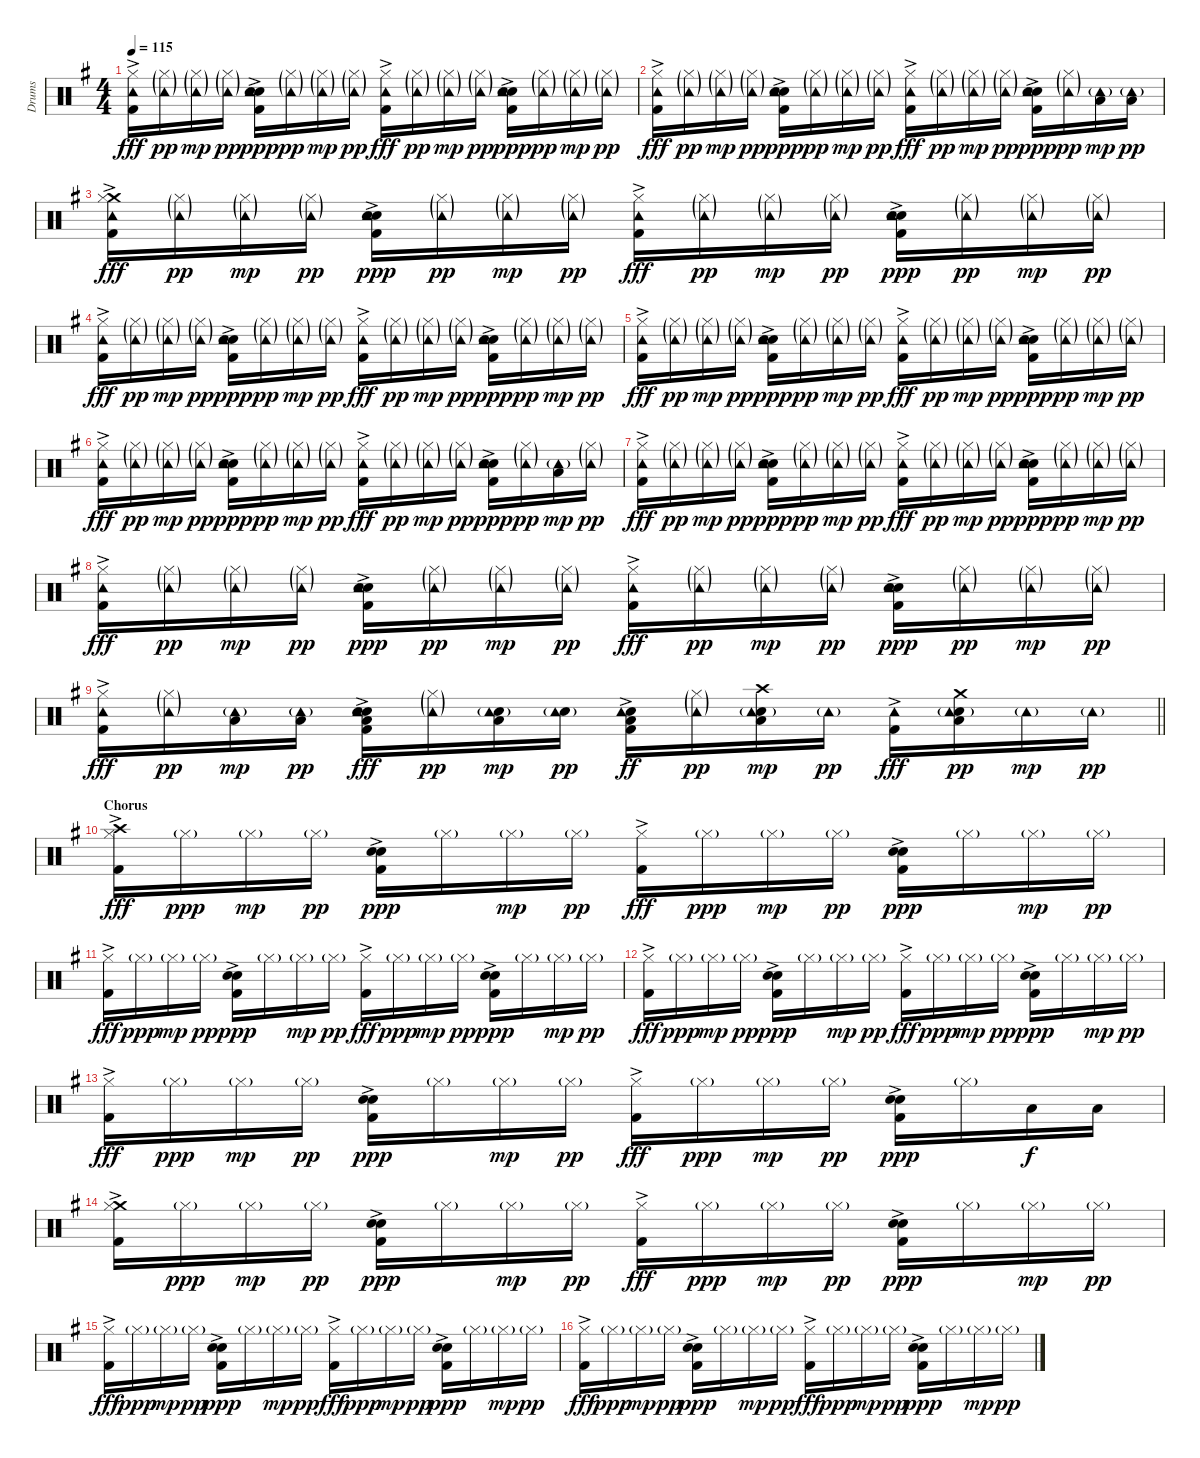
\track ("Drums" "Drums") {instrument percussion}
\staff {score}
\articulation defaults
\ts (4 4)
\tempo 115
\clef neutral
\ks g
("Kick (hit) 2"{ac} "Hi-Hat (closed)" "Tambourine (hit)").16{dy fff} ("Hi-Hat (closed)"{g} "Tambourine (hit)"{g}).16{dy pp} ("Hi-Hat (closed)"{g} "Tambourine (hit)"{g}).16{dy mp} ("Hi-Hat (closed)"{g} "Tambourine (hit)"{g}).16{dy pp} ("Kick (hit) 2"{ac} "Snare (hit) 2"{ac} "Electric Snare (hit)" "Tambourine (hit)").16{dy ppp} ("Hi-Hat (closed)"{g} "Tambourine (hit)"{g}).16{dy pp} ("Hi-Hat (closed)"{g} "Tambourine (hit)"{g}).16{dy mp} ("Hi-Hat (closed)"{g} "Tambourine (hit)"{g}).16{dy pp} ("Kick (hit) 2"{ac} "Hi-Hat (closed)" "Tambourine (hit)").16{dy fff} ("Hi-Hat (closed)"{g} "Tambourine (hit)"{g}).16{dy pp} ("Hi-Hat (closed)"{g} "Tambourine (hit)"{g}).16{dy mp} ("Hi-Hat (closed)"{g} "Tambourine (hit)"{g}).16{dy pp} ("Kick (hit) 2"{ac} "Snare (hit) 2"{ac} "Electric Snare (hit)" "Tambourine (hit)").16{dy ppp} ("Hi-Hat (closed)"{g} "Tambourine (hit)"{g}).16{dy pp} ("Hi-Hat (closed)"{g} "Tambourine (hit)"{g}).16{dy mp} ("Hi-Hat (closed)"{g} "Tambourine (hit)"{g}).16{dy pp} |
("Kick (hit) 2"{ac} "Hi-Hat (closed)" "Tambourine (hit)").16{dy fff} ("Hi-Hat (closed)"{g} "Tambourine (hit)"{g}).16{dy pp} ("Hi-Hat (closed)"{g} "Tambourine (hit)"{g}).16{dy mp} ("Hi-Hat (closed)"{g} "Tambourine (hit)"{g}).16{dy pp} ("Kick (hit) 2"{ac} "Snare (hit) 2"{ac} "Electric Snare (hit)" "Tambourine (hit)").16{dy ppp} ("Hi-Hat (closed)"{g} "Tambourine (hit)"{g}).16{dy pp} ("Hi-Hat (closed)"{g} "Tambourine (hit)"{g}).16{dy mp} ("Hi-Hat (closed)"{g} "Tambourine (hit)"{g}).16{dy pp} ("Kick (hit) 2"{ac} "Hi-Hat (closed)" "Tambourine (hit)").16{dy fff} ("Hi-Hat (closed)"{g} "Tambourine (hit)"{g}).16{dy pp} ("Hi-Hat (closed)"{g} "Tambourine (hit)"{g}).16{dy mp} ("Hi-Hat (closed)"{g} "Tambourine (hit)"{g}).16{dy pp} ("Kick (hit) 2"{ac} "Snare (hit) 2"{ac} "Electric Snare (hit)" "Tambourine (hit)").16{dy ppp} ("Hi-Hat (closed)"{g} "Tambourine (hit)"{g}).16{dy pp} ("Low Tom (hit)" "Tambourine (hit)"{g}).16{dy mp} ("Low Tom (hit)" "Tambourine (hit)"{g}).16{dy pp} |
("Kick (hit) 2"{ac} "Crash medium (hit)" "Hi-Hat (closed)" "Tambourine (hit)").16{dy fff} ("Hi-Hat (closed)"{g} "Tambourine (hit)"{g}).16{dy pp} ("Hi-Hat (closed)"{g} "Tambourine (hit)"{g}).16{dy mp} ("Hi-Hat (closed)"{g} "Tambourine (hit)"{g}).16{dy pp} ("Kick (hit) 2"{ac} "Snare (hit) 2"{ac} "Electric Snare (hit)" "Tambourine (hit)").16{dy ppp} ("Hi-Hat (closed)"{g} "Tambourine (hit)"{g}).16{dy pp} ("Hi-Hat (closed)"{g} "Tambourine (hit)"{g}).16{dy mp} ("Hi-Hat (closed)"{g} "Tambourine (hit)"{g}).16{dy pp} ("Kick (hit) 2"{ac} "Hi-Hat (closed)" "Tambourine (hit)").16{dy fff} ("Hi-Hat (closed)"{g} "Tambourine (hit)"{g}).16{dy pp} ("Hi-Hat (closed)"{g} "Tambourine (hit)"{g}).16{dy mp} ("Hi-Hat (closed)"{g} "Tambourine (hit)"{g}).16{dy pp} ("Kick (hit) 2"{ac} "Snare (hit) 2"{ac} "Electric Snare (hit)" "Tambourine (hit)").16{dy ppp} ("Hi-Hat (closed)"{g} "Tambourine (hit)"{g}).16{dy pp} ("Hi-Hat (closed)"{g} "Tambourine (hit)"{g}).16{dy mp} ("Hi-Hat (closed)"{g} "Tambourine (hit)"{g}).16{dy pp} |
("Kick (hit) 2"{ac} "Hi-Hat (closed)" "Tambourine (hit)").16{dy fff} ("Hi-Hat (closed)"{g} "Tambourine (hit)"{g}).16{dy pp} ("Hi-Hat (closed)"{g} "Tambourine (hit)"{g}).16{dy mp} ("Hi-Hat (closed)"{g} "Tambourine (hit)"{g}).16{dy pp} ("Kick (hit) 2"{ac} "Snare (hit) 2"{ac} "Electric Snare (hit)" "Tambourine (hit)").16{dy ppp} ("Hi-Hat (closed)"{g} "Tambourine (hit)"{g}).16{dy pp} ("Hi-Hat (closed)"{g} "Tambourine (hit)"{g}).16{dy mp} ("Hi-Hat (closed)"{g} "Tambourine (hit)"{g}).16{dy pp} ("Kick (hit) 2"{ac} "Hi-Hat (closed)" "Tambourine (hit)").16{dy fff} ("Hi-Hat (closed)"{g} "Tambourine (hit)"{g}).16{dy pp} ("Hi-Hat (closed)"{g} "Tambourine (hit)"{g}).16{dy mp} ("Hi-Hat (closed)"{g} "Tambourine (hit)"{g}).16{dy pp} ("Kick (hit) 2"{ac} "Snare (hit) 2"{ac} "Electric Snare (hit)" "Tambourine (hit)").16{dy ppp} ("Hi-Hat (closed)"{g} "Tambourine (hit)"{g}).16{dy pp} ("Hi-Hat (closed)"{g} "Tambourine (hit)"{g}).16{dy mp} ("Hi-Hat (closed)"{g} "Tambourine (hit)"{g}).16{dy pp} |
("Kick (hit) 2"{ac} "Hi-Hat (closed)" "Tambourine (hit)").16{dy fff} ("Hi-Hat (closed)"{g} "Tambourine (hit)"{g}).16{dy pp} ("Hi-Hat (closed)"{g} "Tambourine (hit)"{g}).16{dy mp} ("Hi-Hat (closed)"{g} "Tambourine (hit)"{g}).16{dy pp} ("Kick (hit) 2"{ac} "Snare (hit) 2"{ac} "Electric Snare (hit)" "Tambourine (hit)").16{dy ppp} ("Hi-Hat (closed)"{g} "Tambourine (hit)"{g}).16{dy pp} ("Hi-Hat (closed)"{g} "Tambourine (hit)"{g}).16{dy mp} ("Hi-Hat (closed)"{g} "Tambourine (hit)"{g}).16{dy pp} ("Kick (hit) 2"{ac} "Hi-Hat (closed)" "Tambourine (hit)").16{dy fff} ("Hi-Hat (closed)"{g} "Tambourine (hit)"{g}).16{dy pp} ("Hi-Hat (closed)"{g} "Tambourine (hit)"{g}).16{dy mp} ("Hi-Hat (closed)"{g} "Tambourine (hit)"{g}).16{dy pp} ("Kick (hit) 2"{ac} "Snare (hit) 2"{ac} "Electric Snare (hit)" "Tambourine (hit)").16{dy ppp} ("Hi-Hat (closed)"{g} "Tambourine (hit)"{g}).16{dy pp} ("Hi-Hat (closed)"{g} "Tambourine (hit)"{g}).16{dy mp} ("Hi-Hat (closed)"{g} "Tambourine (hit)"{g}).16{dy pp} |
("Kick (hit) 2"{ac} "Hi-Hat (closed)" "Tambourine (hit)").16{dy fff} ("Hi-Hat (closed)"{g} "Tambourine (hit)"{g}).16{dy pp} ("Hi-Hat (closed)"{g} "Tambourine (hit)"{g}).16{dy mp} ("Hi-Hat (closed)"{g} "Tambourine (hit)"{g}).16{dy pp} ("Kick (hit) 2"{ac} "Snare (hit) 2"{ac} "Electric Snare (hit)" "Tambourine (hit)").16{dy ppp} ("Hi-Hat (closed)"{g} "Tambourine (hit)"{g}).16{dy pp} ("Hi-Hat (closed)"{g} "Tambourine (hit)"{g}).16{dy mp} ("Hi-Hat (closed)"{g} "Tambourine (hit)"{g}).16{dy pp} ("Kick (hit) 2"{ac} "Hi-Hat (closed)" "Tambourine (hit)").16{dy fff} ("Hi-Hat (closed)"{g} "Tambourine (hit)"{g}).16{dy pp} ("Hi-Hat (closed)"{g} "Tambourine (hit)"{g}).16{dy mp} ("Hi-Hat (closed)"{g} "Tambourine (hit)"{g}).16{dy pp} ("Kick (hit) 2"{ac} "Snare (hit) 2"{ac} "Electric Snare (hit)" "Tambourine (hit)").16{dy ppp} ("Hi-Hat (closed)"{g} "Tambourine (hit)"{g}).16{dy pp} ("Low Floor Tom (hit)" "Tambourine (hit)"{g}).16{dy mp} ("Hi-Hat (closed)"{g} "Tambourine (hit)"{g}).16{dy pp} |
("Kick (hit) 2"{ac} "Hi-Hat (closed)" "Tambourine (hit)").16{dy fff} ("Hi-Hat (closed)"{g} "Tambourine (hit)"{g}).16{dy pp} ("Hi-Hat (closed)"{g} "Tambourine (hit)"{g}).16{dy mp} ("Hi-Hat (closed)"{g} "Tambourine (hit)"{g}).16{dy pp} ("Kick (hit) 2"{ac} "Snare (hit) 2"{ac} "Electric Snare (hit)" "Tambourine (hit)").16{dy ppp} ("Hi-Hat (closed)"{g} "Tambourine (hit)"{g}).16{dy pp} ("Hi-Hat (closed)"{g} "Tambourine (hit)"{g}).16{dy mp} ("Hi-Hat (closed)"{g} "Tambourine (hit)"{g}).16{dy pp} ("Kick (hit) 2"{ac} "Hi-Hat (closed)" "Tambourine (hit)").16{dy fff} ("Hi-Hat (closed)"{g} "Tambourine (hit)"{g}).16{dy pp} ("Hi-Hat (closed)"{g} "Tambourine (hit)"{g}).16{dy mp} ("Hi-Hat (closed)"{g} "Tambourine (hit)"{g}).16{dy pp} ("Kick (hit) 2"{ac} "Snare (hit) 2"{ac} "Electric Snare (hit)" "Tambourine (hit)").16{dy ppp} ("Hi-Hat (closed)"{g} "Tambourine (hit)"{g}).16{dy pp} ("Hi-Hat (closed)"{g} "Tambourine (hit)"{g}).16{dy mp} ("Hi-Hat (closed)"{g} "Tambourine (hit)"{g}).16{dy pp} |
("Kick (hit) 2"{ac} "Hi-Hat (closed)" "Tambourine (hit)").16{dy fff} ("Hi-Hat (closed)"{g} "Tambourine (hit)"{g}).16{dy pp} ("Hi-Hat (closed)"{g} "Tambourine (hit)"{g}).16{dy mp} ("Hi-Hat (closed)"{g} "Tambourine (hit)"{g}).16{dy pp} ("Kick (hit) 2"{ac} "Snare (hit) 2"{ac} "Electric Snare (hit)" "Tambourine (hit)").16{dy ppp} ("Hi-Hat (closed)"{g} "Tambourine (hit)"{g}).16{dy pp} ("Hi-Hat (closed)"{g} "Tambourine (hit)"{g}).16{dy mp} ("Hi-Hat (closed)"{g} "Tambourine (hit)"{g}).16{dy pp} ("Kick (hit) 2"{ac} "Hi-Hat (closed)" "Tambourine (hit)").16{dy fff} ("Hi-Hat (closed)"{g} "Tambourine (hit)"{g}).16{dy pp} ("Hi-Hat (closed)"{g} "Tambourine (hit)"{g}).16{dy mp} ("Hi-Hat (closed)"{g} "Tambourine (hit)"{g}).16{dy pp} ("Kick (hit) 2"{ac} "Snare (hit) 2"{ac} "Electric Snare (hit)" "Tambourine (hit)").16{dy ppp} ("Hi-Hat (closed)"{g} "Tambourine (hit)"{g}).16{dy pp} ("Hi-Hat (closed)"{g} "Tambourine (hit)"{g}).16{dy mp} ("Hi-Hat (closed)"{g} "Tambourine (hit)"{g}).16{dy pp} |
\barLineRight lightlight
("Kick (hit) 2"{ac} "Hi-Hat (closed)" "Tambourine (hit)").16{dy fff} ("Hi-Hat (closed)"{g} "Tambourine (hit)"{g}).16{dy pp} ("Low Tom (hit)" "Tambourine (hit)"{g}).16{dy mp} ("Low Tom (hit)" "Tambourine (hit)"{g}).16{dy pp} ("Kick (hit) 2"{ac} "Snare (hit) 2"{ac} "Electric Snare (hit)" "Low Tom (hit)" "Tambourine (hit)").16{dy fff} ("Hi-Hat (closed)"{g} "Tambourine (hit)"{g}).16{dy pp} ("Snare (hit) 2" "Low Tom (hit)" "Tambourine (hit)"{g}).16{dy mp} ("Snare (hit) 2" "Tambourine (hit)"{g}).16{dy pp} ("Kick (hit) 2"{ac} "Snare (hit) 2" "Low Floor Tom (hit)" "Tambourine (hit)").16{dy ff} ("Hi-Hat (closed)"{g} "Tambourine (hit)"{g}).16{dy pp} ("Snare (hit) 2" "Crash high (hit)" "Low Tom (hit)" "Tambourine (hit)"{g}).16{dy mp} "Tambourine (hit)"{g}.16{dy pp} ("Kick (hit) 2"{ac} "Tambourine (hit)").16{dy fff} ("Snare (hit) 2" "Crash medium (hit)" "Low Tom (hit)" "Tambourine (hit)"{g}).16{dy pp} "Tambourine (hit)"{g}.16{dy mp} "Tambourine (hit)"{g}.16{dy pp} |
\section ("" "Chorus")
("Kick (hit) 2"{ac} "Crash high (hit)" "Hi-Hat (closed)").16{dy fff} "Hi-Hat (closed)"{g}.16{dy ppp} "Hi-Hat (closed)"{g}.16{dy mp} "Hi-Hat (closed)"{g}.16{dy pp} ("Kick (hit) 2"{ac} "Snare (hit) 2"{ac} "Electric Snare (hit)").16{dy ppp} "Hi-Hat (closed)"{g}.16 "Hi-Hat (closed)"{g}.16{dy mp} "Hi-Hat (closed)"{g}.16{dy pp} ("Kick (hit) 2"{ac} "Hi-Hat (closed)").16{dy fff} "Hi-Hat (closed)"{g}.16{dy ppp} "Hi-Hat (closed)"{g}.16{dy mp} "Hi-Hat (closed)"{g}.16{dy pp} ("Kick (hit) 2"{ac} "Snare (hit) 2"{ac} "Electric Snare (hit)").16{dy ppp} "Hi-Hat (closed)"{g}.16 "Hi-Hat (closed)"{g}.16{dy mp} "Hi-Hat (closed)"{g}.16{dy pp} |
("Kick (hit) 2"{ac} "Hi-Hat (closed)").16{dy fff} "Hi-Hat (closed)"{g}.16{dy ppp} "Hi-Hat (closed)"{g}.16{dy mp} "Hi-Hat (closed)"{g}.16{dy pp} ("Kick (hit) 2"{ac} "Snare (hit) 2"{ac} "Electric Snare (hit)").16{dy ppp} "Hi-Hat (closed)"{g}.16 "Hi-Hat (closed)"{g}.16{dy mp} "Hi-Hat (closed)"{g}.16{dy pp} ("Kick (hit) 2"{ac} "Hi-Hat (closed)").16{dy fff} "Hi-Hat (closed)"{g}.16{dy ppp} "Hi-Hat (closed)"{g}.16{dy mp} "Hi-Hat (closed)"{g}.16{dy pp} ("Kick (hit) 2"{ac} "Snare (hit) 2"{ac} "Electric Snare (hit)").16{dy ppp} "Hi-Hat (closed)"{g}.16 "Hi-Hat (closed)"{g}.16{dy mp} "Hi-Hat (closed)"{g}.16{dy pp} |
("Kick (hit) 2"{ac} "Hi-Hat (closed)").16{dy fff} "Hi-Hat (closed)"{g}.16{dy ppp} "Hi-Hat (closed)"{g}.16{dy mp} "Hi-Hat (closed)"{g}.16{dy pp} ("Kick (hit) 2"{ac} "Snare (hit) 2"{ac} "Electric Snare (hit)").16{dy ppp} "Hi-Hat (closed)"{g}.16 "Hi-Hat (closed)"{g}.16{dy mp} "Hi-Hat (closed)"{g}.16{dy pp} ("Kick (hit) 2"{ac} "Hi-Hat (closed)").16{dy fff} "Hi-Hat (closed)"{g}.16{dy ppp} "Hi-Hat (closed)"{g}.16{dy mp} "Hi-Hat (closed)"{g}.16{dy pp} ("Kick (hit) 2"{ac} "Snare (hit) 2"{ac} "Electric Snare (hit)").16{dy ppp} "Hi-Hat (closed)"{g}.16 "Hi-Hat (closed)"{g}.16{dy mp} "Hi-Hat (closed)"{g}.16{dy pp} |
("Kick (hit) 2"{ac} "Hi-Hat (closed)").16{dy fff} "Hi-Hat (closed)"{g}.16{dy ppp} "Hi-Hat (closed)"{g}.16{dy mp} "Hi-Hat (closed)"{g}.16{dy pp} ("Kick (hit) 2"{ac} "Snare (hit) 2"{ac} "Electric Snare (hit)").16{dy ppp} "Hi-Hat (closed)"{g}.16 "Hi-Hat (closed)"{g}.16{dy mp} "Hi-Hat (closed)"{g}.16{dy pp} ("Kick (hit) 2"{ac} "Hi-Hat (closed)").16{dy fff} "Hi-Hat (closed)"{g}.16{dy ppp} "Hi-Hat (closed)"{g}.16{dy mp} "Hi-Hat (closed)"{g}.16{dy pp} ("Kick (hit) 2"{ac} "Snare (hit) 2"{ac} "Electric Snare (hit)").16{dy ppp} "Hi-Hat (closed)"{g}.16 "Low Tom (hit)".16{dy f} "Low Floor Tom (hit)".16 |
("Kick (hit) 2"{ac} "Crash medium (hit)" "Hi-Hat (closed)").16 "Hi-Hat (closed)"{g}.16{dy ppp} "Hi-Hat (closed)"{g}.16{dy mp} "Hi-Hat (closed)"{g}.16{dy pp} ("Kick (hit) 2"{ac} "Snare (hit) 2"{ac} "Electric Snare (hit)").16{dy ppp} "Hi-Hat (closed)"{g}.16 "Hi-Hat (closed)"{g}.16{dy mp} "Hi-Hat (closed)"{g}.16{dy pp} ("Kick (hit) 2"{ac} "Hi-Hat (closed)").16{dy fff} "Hi-Hat (closed)"{g}.16{dy ppp} "Hi-Hat (closed)"{g}.16{dy mp} "Hi-Hat (closed)"{g}.16{dy pp} ("Kick (hit) 2"{ac} "Snare (hit) 2"{ac} "Electric Snare (hit)").16{dy ppp} "Hi-Hat (closed)"{g}.16 "Hi-Hat (closed)"{g}.16{dy mp} "Hi-Hat (closed)"{g}.16{dy pp} |
("Kick (hit) 2"{ac} "Hi-Hat (closed)").16{dy fff} "Hi-Hat (closed)"{g}.16{dy ppp} "Hi-Hat (closed)"{g}.16{dy mp} "Hi-Hat (closed)"{g}.16{dy pp} ("Kick (hit) 2"{ac} "Snare (hit) 2"{ac} "Electric Snare (hit)").16{dy ppp} "Hi-Hat (closed)"{g}.16 "Hi-Hat (closed)"{g}.16{dy mp} "Hi-Hat (closed)"{g}.16{dy pp} ("Kick (hit) 2"{ac} "Hi-Hat (closed)").16{dy fff} "Hi-Hat (closed)"{g}.16{dy ppp} "Hi-Hat (closed)"{g}.16{dy mp} "Hi-Hat (closed)"{g}.16{dy pp} ("Kick (hit) 2"{ac} "Snare (hit) 2"{ac} "Electric Snare (hit)").16{dy ppp} "Hi-Hat (closed)"{g}.16 "Hi-Hat (closed)"{g}.16{dy mp} "Hi-Hat (closed)"{g}.16{dy pp} |
("Kick (hit) 2"{ac} "Hi-Hat (closed)").16{dy fff} "Hi-Hat (closed)"{g}.16{dy ppp} "Hi-Hat (closed)"{g}.16{dy mp} "Hi-Hat (closed)"{g}.16{dy pp} ("Kick (hit) 2"{ac} "Snare (hit) 2"{ac} "Electric Snare (hit)").16{dy ppp} "Hi-Hat (closed)"{g}.16 "Hi-Hat (closed)"{g}.16{dy mp} "Hi-Hat (closed)"{g}.16{dy pp} ("Kick (hit) 2"{ac} "Hi-Hat (closed)").16{dy fff} "Hi-Hat (closed)"{g}.16{dy ppp} "Hi-Hat (closed)"{g}.16{dy mp} "Hi-Hat (closed)"{g}.16{dy pp} ("Kick (hit) 2"{ac} "Snare (hit) 2"{ac} "Electric Snare (hit)").16{dy ppp} "Hi-Hat (closed)"{g}.16 "Hi-Hat (closed)"{g}.16{dy mp} "Hi-Hat (closed)"{g}.16{dy pp}
